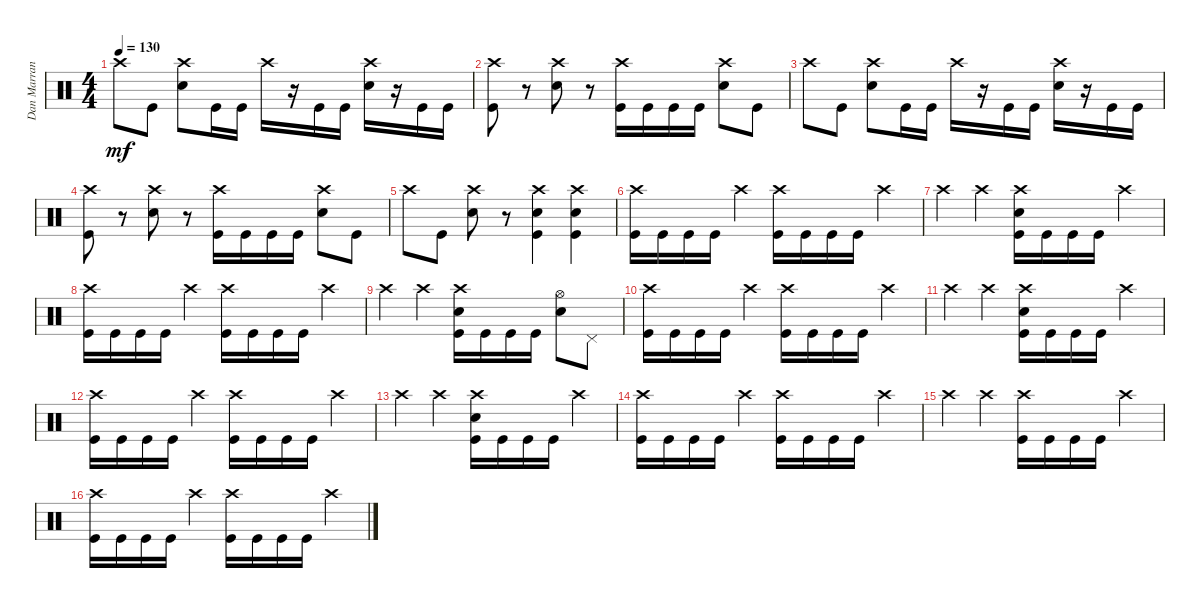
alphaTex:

\track ("Dan Marranca" "Dan Marran") {instrument percussion}
\staff {score}
\articulation defaults
\ts (4 4)
\tempo 130
\clef neutral
\ks c "Crash high (hit)".8{dy mf} "Kick (hit)".8
("Crash high (hit)" "Electric Snare (hit)").8 "Kick (hit)".16 "Kick (hit)".16 "Crash high (hit)".16 r.16 "Kick (hit)".16 "Kick (hit)".16 ("Crash high (hit)" "Electric Snare (hit)").16 r.16 "Kick (hit)".16 "Kick (hit)".16 |
("Crash high (hit)" "Kick (hit)").8 r.8 ("Crash high (hit)" "Electric Snare (hit)").8 r.8 ("Crash high (hit)" "Kick (hit)").16 "Kick (hit)".16 "Kick (hit)".16 "Kick (hit)".16 ("Crash high (hit)" "Electric Snare (hit)").8 "Kick (hit)".8 |
"Crash high (hit)".8 "Kick (hit)".8 ("Crash high (hit)" "Electric Snare (hit)").8 "Kick (hit)".16 "Kick (hit)".16 "Crash high (hit)".16 r.16 "Kick (hit)".16 "Kick (hit)".16 ("Crash high (hit)" "Electric Snare (hit)").16 r.16 "Kick (hit)".16 "Kick (hit)".16 |
("Crash high (hit)" "Kick (hit)").8 r.8 ("Crash high (hit)" "Electric Snare (hit)").8 r.8 ("Crash high (hit)" "Kick (hit)").16 "Kick (hit)".16 "Kick (hit)".16 "Kick (hit)".16 ("Crash high (hit)" "Electric Snare (hit)").8 "Kick (hit)".8 |
"Crash high (hit)".8 "Kick (hit)".8 ("Crash high (hit)" "Electric Snare (hit)").8 r.8 ("Crash high (hit)" "Electric Snare (hit)" "Kick (hit)").4 ("Crash high (hit)" "Electric Snare (hit)" "Kick (hit)").4 |
("Crash high (hit)" "Kick (hit)").16 "Kick (hit)".16 "Kick (hit)".16 "Kick (hit)".16 "Crash high (hit)".4 ("Crash high (hit)" "Kick (hit)").16 "Kick (hit)".16 "Kick (hit)".16 "Kick (hit)".16 "Crash high (hit)".4 |
"Crash high (hit)".4 "Crash high (hit)".4 ("Crash high (hit)" "Electric Snare (hit)" "Kick (hit)").16 "Kick (hit)".16 "Kick (hit)".16 "Kick (hit)".16 "Crash high (hit)".4 |
("Crash high (hit)" "Kick (hit)").16 "Kick (hit)".16 "Kick (hit)".16 "Kick (hit)".16 "Crash high (hit)".4 ("Crash high (hit)" "Kick (hit)").16 "Kick (hit)".16 "Kick (hit)".16 "Kick (hit)".16 "Crash high (hit)".4 |
"Crash high (hit)".4 "Crash high (hit)".4 ("Crash high (hit)" "Electric Snare (hit)" "Kick (hit)").16 "Kick (hit)".16 "Kick (hit)".16 "Kick (hit)".16 ("Hi-Hat (open)" "Electric Snare (hit)").8 "Pedal Hi-Hat (hit)".8 |
("Crash high (hit)" "Kick (hit)").16 "Kick (hit)".16 "Kick (hit)".16 "Kick (hit)".16 "Crash high (hit)".4 ("Crash high (hit)" "Kick (hit)").16 "Kick (hit)".16 "Kick (hit)".16 "Kick (hit)".16 "Crash high (hit)".4 |
"Crash high (hit)".4 "Crash high (hit)".4 ("Crash high (hit)" "Electric Snare (hit)" "Kick (hit)").16 "Kick (hit)".16 "Kick (hit)".16 "Kick (hit)".16 "Crash high (hit)".4 |
("Crash high (hit)" "Kick (hit)").16 "Kick (hit)".16 "Kick (hit)".16 "Kick (hit)".16 "Crash high (hit)".4 ("Crash high (hit)" "Kick (hit)").16 "Kick (hit)".16 "Kick (hit)".16 "Kick (hit)".16 "Crash high (hit)".4 |
"Crash high (hit)".4 "Crash high (hit)".4 ("Crash high (hit)" "Electric Snare (hit)" "Kick (hit)").16 "Kick (hit)".16 "Kick (hit)".16 "Kick (hit)".16 "Crash high (hit)".4 |
("Crash high (hit)" "Kick (hit)").16 "Kick (hit)".16 "Kick (hit)".16 "Kick (hit)".16 "Crash high (hit)".4 ("Crash high (hit)" "Kick (hit)").16 "Kick (hit)".16 "Kick (hit)".16 "Kick (hit)".16 "Crash high (hit)".4 |
"Crash high (hit)".4 "Crash high (hit)".4 ("Crash high (hit)" "Kick (hit)").16 "Kick (hit)".16 "Kick (hit)".16 "Kick (hit)".16 "Crash high (hit)".4 |
("Crash high (hit)" "Kick (hit)").16 "Kick (hit)".16 "Kick (hit)".16 "Kick (hit)".16 "Crash high (hit)".4 ("Crash high (hit)" "Kick (hit)").16 "Kick (hit)".16 "Kick (hit)".16 "Kick (hit)".16 "Crash high (hit)".4
